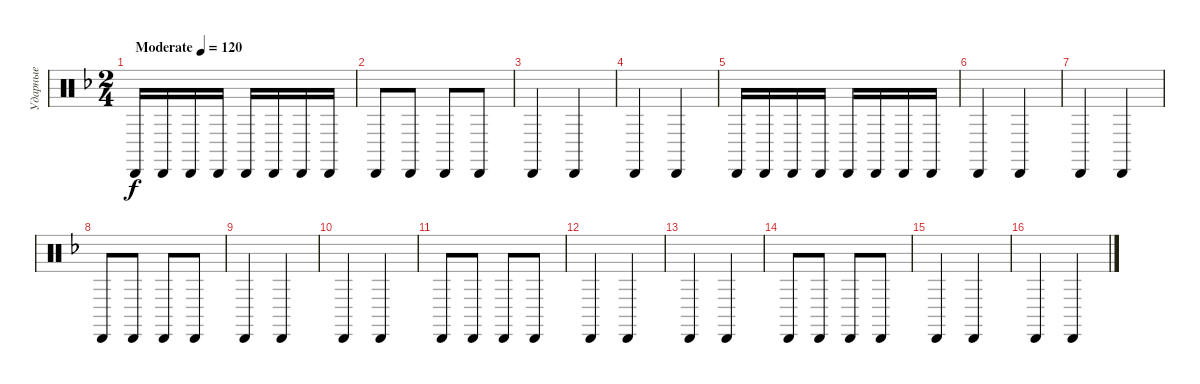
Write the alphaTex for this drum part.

\track ("Ударные" "Ударные") {instrument percussion}
\staff {score}
\articulation defaults
\ts (2 4)
\tempo (120 "Moderate")
\clef neutral
\ks f "Cabasa (hit)".16{dy f} "Cabasa (hit)".16 "Cabasa (hit)".16 "Cabasa (hit)".16 "Cabasa (hit)".16 "Cabasa (hit)".16 "Cabasa (hit)".16 "Cabasa (hit)".16
|
"Cabasa (hit)".8 "Cabasa (hit)".8 "Cabasa (hit)".8 "Cabasa (hit)".8 |
"Cabasa (hit)".4 "Cabasa (hit)".4 |
"Cabasa (hit)".4 "Cabasa (hit)".4 |
"Cabasa (hit)".16 "Cabasa (hit)".16 "Cabasa (hit)".16 "Cabasa (hit)".16 "Cabasa (hit)".16 "Cabasa (hit)".16 "Cabasa (hit)".16 "Cabasa (hit)".16 |
"Cabasa (hit)".4 "Cabasa (hit)".4 |
"Cabasa (hit)".4 "Cabasa (hit)".4 |
"Cabasa (hit)".8 "Cabasa (hit)".8 "Cabasa (hit)".8 "Cabasa (hit)".8 |
"Cabasa (hit)".4 "Cabasa (hit)".4 |
"Cabasa (hit)".4 "Cabasa (hit)".4 |
"Cabasa (hit)".8 "Cabasa (hit)".8 "Cabasa (hit)".8 "Cabasa (hit)".8 |
"Cabasa (hit)".4 "Cabasa (hit)".4 |
"Cabasa (hit)".4 "Cabasa (hit)".4 |
"Cabasa (hit)".8 "Cabasa (hit)".8 "Cabasa (hit)".8 "Cabasa (hit)".8 |
"Cabasa (hit)".4 "Cabasa (hit)".4 |
"Cabasa (hit)".4 "Cabasa (hit)".4
